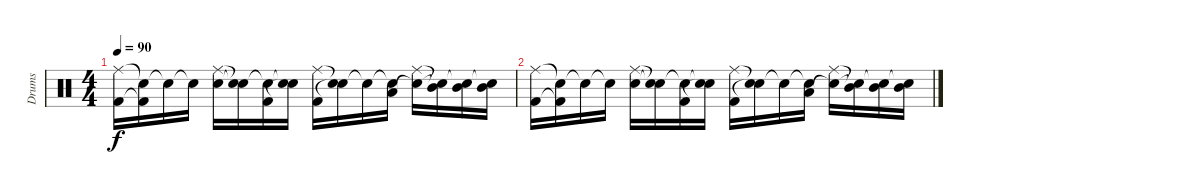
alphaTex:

\track ("Drums" "Drums") {instrument percussion}
\staff {score}
\articulation defaults
\ts (4 4)
\tempo 90
\clef neutral
\ks c
("Ride (middle)" "Kick (hit) 2").16{dy f volume 13} ("Snare (hit)"{t} "Kick (hit) 2"{t}).16 "Snare (hit)"{t}.16 "Snare (hit)"{t}.16 ("Ride (middle)" "Snare (hit) 2").16 ("Snare (hit)"{t} "Snare (hit)"{t}).16 ("Snare (hit)"{t} "Kick (hit) 2").16 ("Snare (hit)"{t} "Snare (hit)"{t}).16 ("Ride (middle)" "Kick (hit) 2").16{volume 9} ("Snare (hit)"{t} "Snare (hit)"{t}).16 "Snare (hit)"{t}.16 ("Snare (hit)"{t} "Low Tom (hit)").16 ("Ride (middle)" "Snare (hit)"{t}).16 ("Snare (hit)"{t} "Mid Tom (hit)"{t}).16 ("Snare (hit)"{t} "Mid Tom (hit)").16 ("Snare (hit)"{t} "Mid Tom (hit)").16 |
("Ride (middle)" "Kick (hit) 2").16{volume 6} ("Snare (hit)"{t} "Kick (hit) 2"{t}).16 "Snare (hit)"{t}.16 "Snare (hit)"{t}.16 ("Ride (middle)" "Snare (hit) 2").16 ("Snare (hit)"{t} "Snare (hit)"{t}).16 ("Snare (hit)"{t} "Kick (hit) 2").16 ("Snare (hit)"{t} "Snare (hit)"{t}).16 ("Ride (middle)" "Kick (hit) 2").16{volume 0} ("Snare (hit)"{t} "Snare (hit)"{t}).16 "Snare (hit)"{t}.16 ("Snare (hit)"{t} "Low Tom (hit)").16 ("Ride (middle)" "Snare (hit)"{t}).16 ("Snare (hit)"{t} "Mid Tom (hit)"{t}).16 ("Snare (hit)"{t} "Mid Tom (hit)").16 ("Snare (hit)"{t} "Mid Tom (hit)").16
